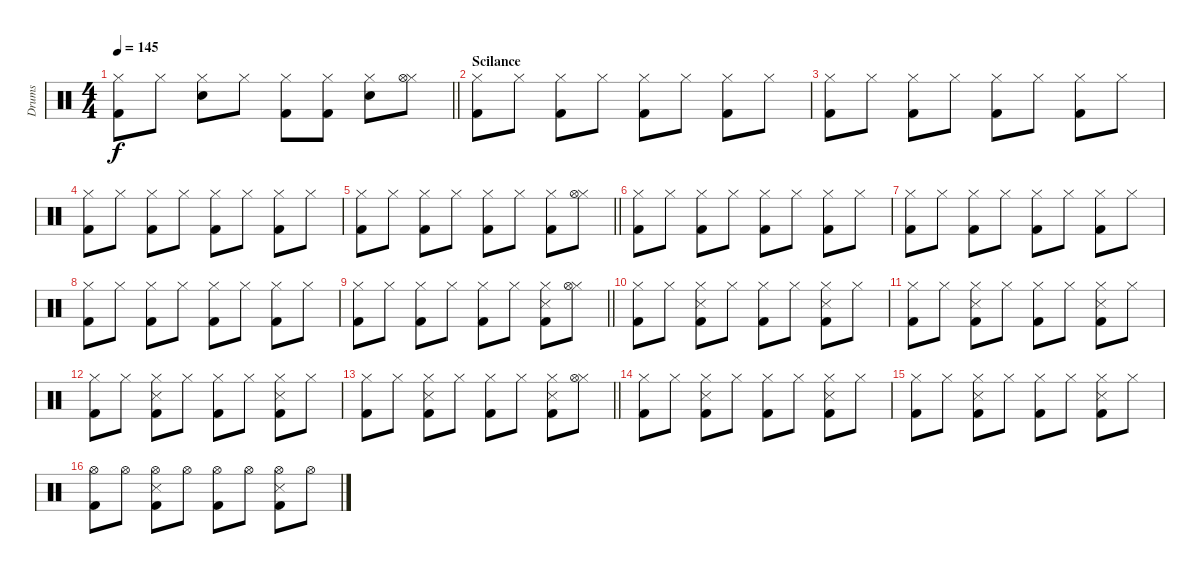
\track ("Drums" "Drums") {instrument percussion}
\staff {score}
\articulation defaults
\ts (4 4)
\tempo 145
\clef neutral
\barLineRight lightlight
\ks c
("Kick (hit) 2" "Hi-Hat (closed)").8{dy f} "Hi-Hat (closed)".8 ("Snare (hit) 2" "Hi-Hat (closed)").8 "Hi-Hat (closed)".8 ("Kick (hit) 2" "Hi-Hat (closed)").8 ("Kick (hit) 2" "Hi-Hat (closed)").8 ("Snare (hit) 2" "Hi-Hat (closed)").8 ("Hi-Hat (closed)" "Hi-Hat (open)").8 |
\section ("" "Scilance")
("Kick (hit) 2" "Hi-Hat (closed)").8 "Hi-Hat (closed)".8 ("Kick (hit) 2" "Hi-Hat (closed)").8 "Hi-Hat (closed)".8 ("Kick (hit) 2" "Hi-Hat (closed)").8 "Hi-Hat (closed)".8 ("Kick (hit) 2" "Hi-Hat (closed)").8 "Hi-Hat (closed)".8 |
("Kick (hit) 2" "Hi-Hat (closed)").8 "Hi-Hat (closed)".8 ("Kick (hit) 2" "Hi-Hat (closed)").8 "Hi-Hat (closed)".8 ("Kick (hit) 2" "Hi-Hat (closed)").8 "Hi-Hat (closed)".8 ("Kick (hit) 2" "Hi-Hat (closed)").8 "Hi-Hat (closed)".8 |
("Kick (hit) 2" "Hi-Hat (closed)").8 "Hi-Hat (closed)".8 ("Kick (hit) 2" "Hi-Hat (closed)").8 "Hi-Hat (closed)".8 ("Kick (hit) 2" "Hi-Hat (closed)").8 "Hi-Hat (closed)".8 ("Kick (hit) 2" "Hi-Hat (closed)").8 "Hi-Hat (closed)".8 |
\barLineRight lightlight
("Kick (hit) 2" "Hi-Hat (closed)").8 "Hi-Hat (closed)".8 ("Kick (hit) 2" "Hi-Hat (closed)").8 "Hi-Hat (closed)".8 ("Kick (hit) 2" "Hi-Hat (closed)").8 "Hi-Hat (closed)".8 ("Kick (hit) 2" "Hi-Hat (closed)").8 ("Hi-Hat (closed)" "Hi-Hat (open)").8 |
("Kick (hit) 2" "Hi-Hat (closed)").8 "Hi-Hat (closed)".8 ("Kick (hit) 2" "Hi-Hat (closed)").8 "Hi-Hat (closed)".8 ("Kick (hit) 2" "Hi-Hat (closed)").8 "Hi-Hat (closed)".8 ("Kick (hit) 2" "Hi-Hat (closed)").8 "Hi-Hat (closed)".8 |
("Kick (hit) 2" "Hi-Hat (closed)").8 "Hi-Hat (closed)".8 ("Kick (hit) 2" "Hi-Hat (closed)").8 "Hi-Hat (closed)".8 ("Kick (hit) 2" "Hi-Hat (closed)").8 "Hi-Hat (closed)".8 ("Kick (hit) 2" "Hi-Hat (closed)").8 "Hi-Hat (closed)".8 |
("Kick (hit) 2" "Hi-Hat (closed)").8 "Hi-Hat (closed)".8 ("Kick (hit) 2" "Hi-Hat (closed)").8 "Hi-Hat (closed)".8 ("Kick (hit) 2" "Hi-Hat (closed)").8 "Hi-Hat (closed)".8 ("Kick (hit) 2" "Hi-Hat (closed)").8 "Hi-Hat (closed)".8 |
\barLineRight lightlight
("Kick (hit) 2" "Hi-Hat (closed)").8 "Hi-Hat (closed)".8 ("Kick (hit) 2" "Hi-Hat (closed)").8 "Hi-Hat (closed)".8 ("Kick (hit) 2" "Hi-Hat (closed)").8 "Hi-Hat (closed)".8 ("Kick (hit) 2" "Hi-Hat (closed)" "Snare (side stick) 3").8 ("Hi-Hat (closed)" "Hi-Hat (open)").8 |
("Kick (hit) 2" "Hi-Hat (closed)").8 "Hi-Hat (closed)".8 ("Kick (hit) 2" "Hi-Hat (closed)" "Snare (side stick) 3").8 "Hi-Hat (closed)".8 ("Kick (hit) 2" "Hi-Hat (closed)").8 "Hi-Hat (closed)".8 ("Kick (hit) 2" "Hi-Hat (closed)" "Snare (side stick) 3").8 "Hi-Hat (closed)".8 |
("Kick (hit) 2" "Hi-Hat (closed)").8 "Hi-Hat (closed)".8 ("Kick (hit) 2" "Hi-Hat (closed)" "Snare (side stick) 3").8 "Hi-Hat (closed)".8 ("Kick (hit) 2" "Hi-Hat (closed)").8 "Hi-Hat (closed)".8 ("Kick (hit) 2" "Hi-Hat (closed)" "Snare (side stick) 3").8 "Hi-Hat (closed)".8 |
("Kick (hit) 2" "Hi-Hat (closed)").8 "Hi-Hat (closed)".8 ("Kick (hit) 2" "Hi-Hat (closed)" "Snare (side stick) 3").8 "Hi-Hat (closed)".8 ("Kick (hit) 2" "Hi-Hat (closed)").8 "Hi-Hat (closed)".8 ("Kick (hit) 2" "Hi-Hat (closed)" "Snare (side stick) 3").8 "Hi-Hat (closed)".8 |
\barLineRight lightlight
("Kick (hit) 2" "Hi-Hat (closed)").8 "Hi-Hat (closed)".8 ("Kick (hit) 2" "Hi-Hat (closed)" "Snare (side stick) 3").8 "Hi-Hat (closed)".8 ("Kick (hit) 2" "Hi-Hat (closed)").8 "Hi-Hat (closed)".8 ("Kick (hit) 2" "Hi-Hat (closed)" "Snare (side stick) 3").8 ("Hi-Hat (closed)" "Hi-Hat (open)").8 |
("Kick (hit) 2" "Hi-Hat (closed)").8 "Hi-Hat (closed)".8 ("Kick (hit) 2" "Hi-Hat (closed)" "Snare (side stick) 3").8 "Hi-Hat (closed)".8 ("Kick (hit) 2" "Hi-Hat (closed)").8 "Hi-Hat (closed)".8 ("Kick (hit) 2" "Hi-Hat (closed)" "Snare (side stick) 3").8 "Hi-Hat (closed)".8 |
("Kick (hit) 2" "Hi-Hat (closed)").8 "Hi-Hat (closed)".8 ("Kick (hit) 2" "Hi-Hat (closed)" "Snare (side stick) 3").8 "Hi-Hat (closed)".8 ("Kick (hit) 2" "Hi-Hat (closed)").8 "Hi-Hat (closed)".8 ("Kick (hit) 2" "Hi-Hat (closed)" "Snare (side stick) 3").8 "Hi-Hat (closed)".8 |
("Kick (hit) 2" "Hi-Hat (open)").8 "Hi-Hat (open)".8 ("Kick (hit) 2" "Hi-Hat (open)" "Snare (side stick) 3").8 "Hi-Hat (open)".8 ("Kick (hit) 2" "Hi-Hat (open)").8 "Hi-Hat (open)".8 ("Kick (hit) 2" "Hi-Hat (open)" "Snare (side stick) 3").8 "Hi-Hat (open)".8
